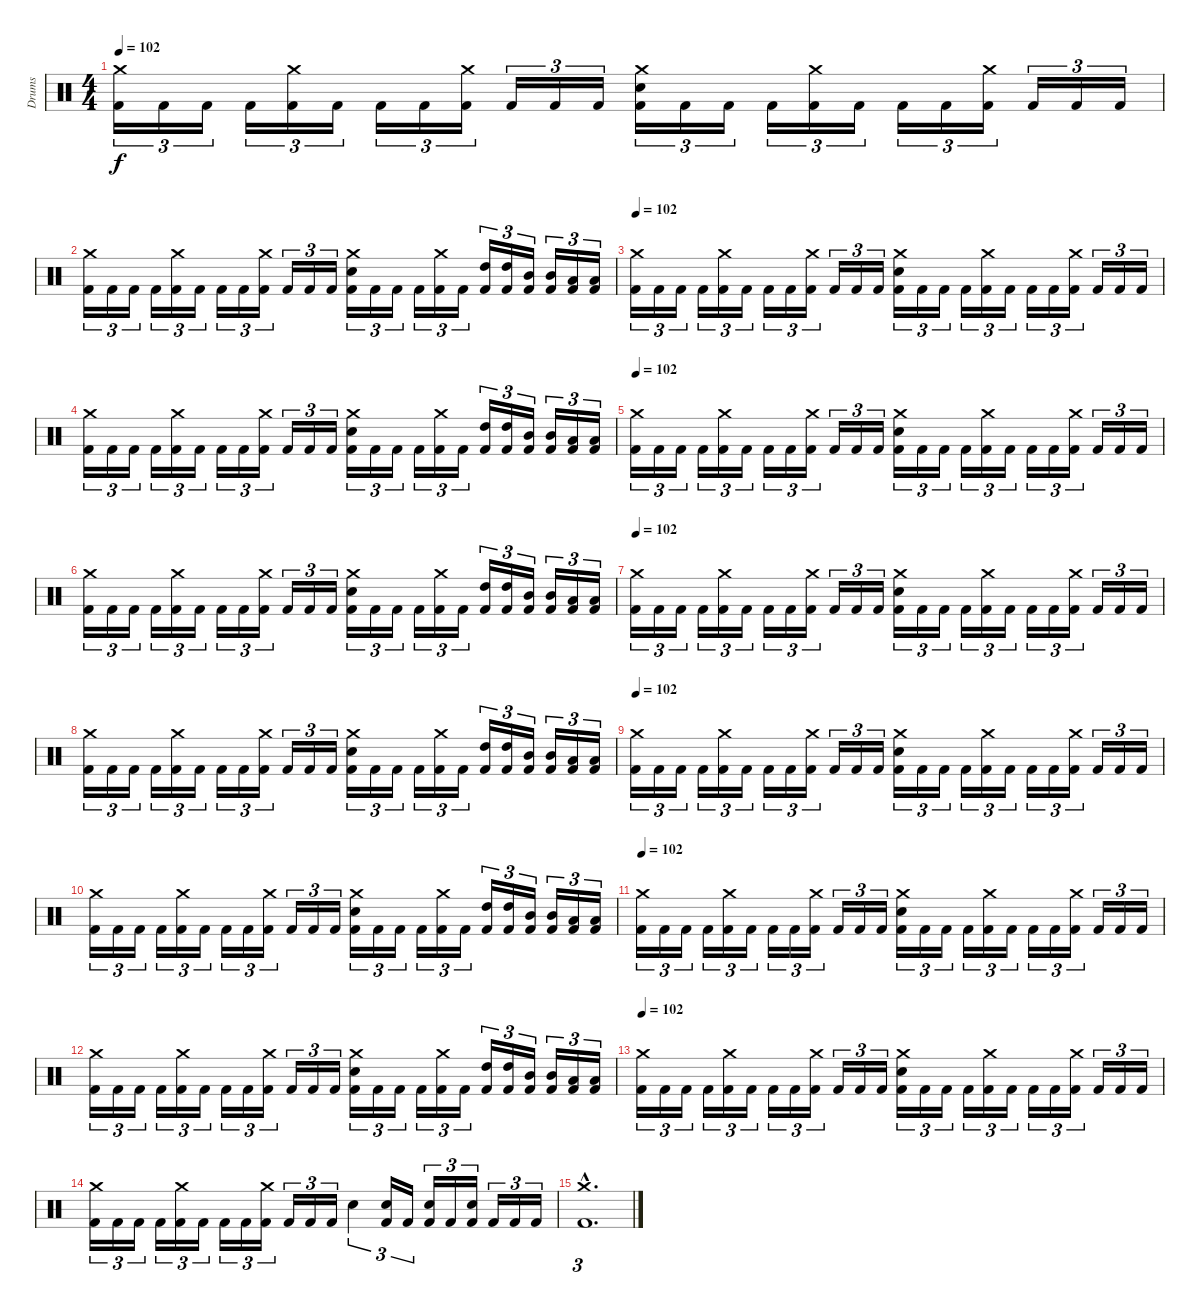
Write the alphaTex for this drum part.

\track ("Drums" "Drums") {instrument percussion}
\staff {score}
\articulation defaults
\ts (4 4)
\tempo 102
\clef neutral
\ks c
("Crash medium (hit)" "Kick (hit) 2").16{tu (3 2) dy f} "Kick (hit) 2".16{tu (3 2)} "Kick (hit) 2".16{tu (3 2)} "Kick (hit) 2".16{tu (3 2)} ("Crash medium (hit)" "Kick (hit) 2").16{tu (3 2)} "Kick (hit) 2".16{tu (3 2)} "Kick (hit) 2".16{tu (3 2)} "Kick (hit) 2".16{tu (3 2)} ("Crash medium (hit)" "Kick (hit) 2").16{tu (3 2)} "Kick (hit) 2".16{tu (3 2)} "Kick (hit) 2".16{tu (3 2)} "Kick (hit) 2".16{tu (3 2)} ("Crash medium (hit)" "Snare (hit) 2" "Kick (hit) 2").16{tu (3 2)} "Kick (hit) 2".16{tu (3 2)} "Kick (hit) 2".16{tu (3 2)} "Kick (hit) 2".16{tu (3 2)} ("Crash medium (hit)" "Kick (hit) 2").16{tu (3 2)} "Kick (hit) 2".16{tu (3 2)} "Kick (hit) 2".16{tu (3 2)} "Kick (hit) 2".16{tu (3 2)} ("Crash medium (hit)" "Kick (hit) 2").16{tu (3 2)} "Kick (hit) 2".16{tu (3 2)} "Kick (hit) 2".16{tu (3 2)} "Kick (hit) 2".16{tu (3 2)} |
("Crash medium (hit)" "Kick (hit) 2").16{tu (3 2)} "Kick (hit) 2".16{tu (3 2)} "Kick (hit) 2".16{tu (3 2)} "Kick (hit) 2".16{tu (3 2)} ("Crash medium (hit)" "Kick (hit) 2").16{tu (3 2)} "Kick (hit) 2".16{tu (3 2)} "Kick (hit) 2".16{tu (3 2)} "Kick (hit) 2".16{tu (3 2)} ("Crash medium (hit)" "Kick (hit) 2").16{tu (3 2)} "Kick (hit) 2".16{tu (3 2)} "Kick (hit) 2".16{tu (3 2)} "Kick (hit) 2".16{tu (3 2)} ("Crash medium (hit)" "Snare (hit) 2" "Kick (hit) 2").16{tu (3 2)} "Kick (hit) 2".16{tu (3 2)} "Kick (hit) 2".16{tu (3 2)} "Kick (hit) 2".16{tu (3 2)} ("Crash medium (hit)" "Kick (hit) 2").16{tu (3 2)} "Kick (hit) 2".16{tu (3 2)} ("High Tom (hit)" "Kick (hit) 2").16{tu (3 2)} ("High Tom (hit)" "Kick (hit) 2").16{tu (3 2)} ("Mid Tom (hit)" "Kick (hit) 2").16{tu (3 2)} ("Mid Tom (hit)" "Kick (hit) 2").16{tu (3 2)} ("Low Tom (hit)" "Kick (hit) 2").16{tu (3 2)} ("Low Tom (hit)" "Kick (hit) 2").16{tu (3 2)} |
\tempo 102
("Crash medium (hit)" "Kick (hit) 2").16{tu (3 2)} "Kick (hit) 2".16{tu (3 2)} "Kick (hit) 2".16{tu (3 2)} "Kick (hit) 2".16{tu (3 2)} ("Crash medium (hit)" "Kick (hit) 2").16{tu (3 2)} "Kick (hit) 2".16{tu (3 2)} "Kick (hit) 2".16{tu (3 2)} "Kick (hit) 2".16{tu (3 2)} ("Crash medium (hit)" "Kick (hit) 2").16{tu (3 2)} "Kick (hit) 2".16{tu (3 2)} "Kick (hit) 2".16{tu (3 2)} "Kick (hit) 2".16{tu (3 2)} ("Crash medium (hit)" "Snare (hit) 2" "Kick (hit) 2").16{tu (3 2)} "Kick (hit) 2".16{tu (3 2)} "Kick (hit) 2".16{tu (3 2)} "Kick (hit) 2".16{tu (3 2)} ("Crash medium (hit)" "Kick (hit) 2").16{tu (3 2)} "Kick (hit) 2".16{tu (3 2)} "Kick (hit) 2".16{tu (3 2)} "Kick (hit) 2".16{tu (3 2)} ("Crash medium (hit)" "Kick (hit) 2").16{tu (3 2)} "Kick (hit) 2".16{tu (3 2)} "Kick (hit) 2".16{tu (3 2)} "Kick (hit) 2".16{tu (3 2)} |
("Crash medium (hit)" "Kick (hit) 2").16{tu (3 2)} "Kick (hit) 2".16{tu (3 2)} "Kick (hit) 2".16{tu (3 2)} "Kick (hit) 2".16{tu (3 2)} ("Crash medium (hit)" "Kick (hit) 2").16{tu (3 2)} "Kick (hit) 2".16{tu (3 2)} "Kick (hit) 2".16{tu (3 2)} "Kick (hit) 2".16{tu (3 2)} ("Crash medium (hit)" "Kick (hit) 2").16{tu (3 2)} "Kick (hit) 2".16{tu (3 2)} "Kick (hit) 2".16{tu (3 2)} "Kick (hit) 2".16{tu (3 2)} ("Crash medium (hit)" "Snare (hit) 2" "Kick (hit) 2").16{tu (3 2)} "Kick (hit) 2".16{tu (3 2)} "Kick (hit) 2".16{tu (3 2)} "Kick (hit) 2".16{tu (3 2)} ("Crash medium (hit)" "Kick (hit) 2").16{tu (3 2)} "Kick (hit) 2".16{tu (3 2)} ("High Tom (hit)" "Kick (hit) 2").16{tu (3 2)} ("High Tom (hit)" "Kick (hit) 2").16{tu (3 2)} ("Mid Tom (hit)" "Kick (hit) 2").16{tu (3 2)} ("Mid Tom (hit)" "Kick (hit) 2").16{tu (3 2)} ("Low Tom (hit)" "Kick (hit) 2").16{tu (3 2)} ("Low Tom (hit)" "Kick (hit) 2").16{tu (3 2)} |
\tempo 102
("Crash medium (hit)" "Kick (hit) 2").16{tu (3 2)} "Kick (hit) 2".16{tu (3 2)} "Kick (hit) 2".16{tu (3 2)} "Kick (hit) 2".16{tu (3 2)} ("Crash medium (hit)" "Kick (hit) 2").16{tu (3 2)} "Kick (hit) 2".16{tu (3 2)} "Kick (hit) 2".16{tu (3 2)} "Kick (hit) 2".16{tu (3 2)} ("Crash medium (hit)" "Kick (hit) 2").16{tu (3 2)} "Kick (hit) 2".16{tu (3 2)} "Kick (hit) 2".16{tu (3 2)} "Kick (hit) 2".16{tu (3 2)} ("Crash medium (hit)" "Snare (hit) 2" "Kick (hit) 2").16{tu (3 2)} "Kick (hit) 2".16{tu (3 2)} "Kick (hit) 2".16{tu (3 2)} "Kick (hit) 2".16{tu (3 2)} ("Crash medium (hit)" "Kick (hit) 2").16{tu (3 2)} "Kick (hit) 2".16{tu (3 2)} "Kick (hit) 2".16{tu (3 2)} "Kick (hit) 2".16{tu (3 2)} ("Crash medium (hit)" "Kick (hit) 2").16{tu (3 2)} "Kick (hit) 2".16{tu (3 2)} "Kick (hit) 2".16{tu (3 2)} "Kick (hit) 2".16{tu (3 2)} |
("Crash medium (hit)" "Kick (hit) 2").16{tu (3 2)} "Kick (hit) 2".16{tu (3 2)} "Kick (hit) 2".16{tu (3 2)} "Kick (hit) 2".16{tu (3 2)} ("Crash medium (hit)" "Kick (hit) 2").16{tu (3 2)} "Kick (hit) 2".16{tu (3 2)} "Kick (hit) 2".16{tu (3 2)} "Kick (hit) 2".16{tu (3 2)} ("Crash medium (hit)" "Kick (hit) 2").16{tu (3 2)} "Kick (hit) 2".16{tu (3 2)} "Kick (hit) 2".16{tu (3 2)} "Kick (hit) 2".16{tu (3 2)} ("Crash medium (hit)" "Snare (hit) 2" "Kick (hit) 2").16{tu (3 2)} "Kick (hit) 2".16{tu (3 2)} "Kick (hit) 2".16{tu (3 2)} "Kick (hit) 2".16{tu (3 2)} ("Crash medium (hit)" "Kick (hit) 2").16{tu (3 2)} "Kick (hit) 2".16{tu (3 2)} ("High Tom (hit)" "Kick (hit) 2").16{tu (3 2)} ("High Tom (hit)" "Kick (hit) 2").16{tu (3 2)} ("Mid Tom (hit)" "Kick (hit) 2").16{tu (3 2)} ("Mid Tom (hit)" "Kick (hit) 2").16{tu (3 2)} ("Low Tom (hit)" "Kick (hit) 2").16{tu (3 2)} ("Low Tom (hit)" "Kick (hit) 2").16{tu (3 2)} |
\tempo 102
("Crash medium (hit)" "Kick (hit) 2").16{tu (3 2)} "Kick (hit) 2".16{tu (3 2)} "Kick (hit) 2".16{tu (3 2)} "Kick (hit) 2".16{tu (3 2)} ("Crash medium (hit)" "Kick (hit) 2").16{tu (3 2)} "Kick (hit) 2".16{tu (3 2)} "Kick (hit) 2".16{tu (3 2)} "Kick (hit) 2".16{tu (3 2)} ("Crash medium (hit)" "Kick (hit) 2").16{tu (3 2)} "Kick (hit) 2".16{tu (3 2)} "Kick (hit) 2".16{tu (3 2)} "Kick (hit) 2".16{tu (3 2)} ("Crash medium (hit)" "Snare (hit) 2" "Kick (hit) 2").16{tu (3 2)} "Kick (hit) 2".16{tu (3 2)} "Kick (hit) 2".16{tu (3 2)} "Kick (hit) 2".16{tu (3 2)} ("Crash medium (hit)" "Kick (hit) 2").16{tu (3 2)} "Kick (hit) 2".16{tu (3 2)} "Kick (hit) 2".16{tu (3 2)} "Kick (hit) 2".16{tu (3 2)} ("Crash medium (hit)" "Kick (hit) 2").16{tu (3 2)} "Kick (hit) 2".16{tu (3 2)} "Kick (hit) 2".16{tu (3 2)} "Kick (hit) 2".16{tu (3 2)} |
("Crash medium (hit)" "Kick (hit) 2").16{tu (3 2)} "Kick (hit) 2".16{tu (3 2)} "Kick (hit) 2".16{tu (3 2)} "Kick (hit) 2".16{tu (3 2)} ("Crash medium (hit)" "Kick (hit) 2").16{tu (3 2)} "Kick (hit) 2".16{tu (3 2)} "Kick (hit) 2".16{tu (3 2)} "Kick (hit) 2".16{tu (3 2)} ("Crash medium (hit)" "Kick (hit) 2").16{tu (3 2)} "Kick (hit) 2".16{tu (3 2)} "Kick (hit) 2".16{tu (3 2)} "Kick (hit) 2".16{tu (3 2)} ("Crash medium (hit)" "Snare (hit) 2" "Kick (hit) 2").16{tu (3 2)} "Kick (hit) 2".16{tu (3 2)} "Kick (hit) 2".16{tu (3 2)} "Kick (hit) 2".16{tu (3 2)} ("Crash medium (hit)" "Kick (hit) 2").16{tu (3 2)} "Kick (hit) 2".16{tu (3 2)} ("High Tom (hit)" "Kick (hit) 2").16{tu (3 2)} ("High Tom (hit)" "Kick (hit) 2").16{tu (3 2)} ("Mid Tom (hit)" "Kick (hit) 2").16{tu (3 2)} ("Mid Tom (hit)" "Kick (hit) 2").16{tu (3 2)} ("Low Tom (hit)" "Kick (hit) 2").16{tu (3 2)} ("Low Tom (hit)" "Kick (hit) 2").16{tu (3 2)} |
\tempo 102
("Crash medium (hit)" "Kick (hit) 2").16{tu (3 2)} "Kick (hit) 2".16{tu (3 2)} "Kick (hit) 2".16{tu (3 2)} "Kick (hit) 2".16{tu (3 2)} ("Crash medium (hit)" "Kick (hit) 2").16{tu (3 2)} "Kick (hit) 2".16{tu (3 2)} "Kick (hit) 2".16{tu (3 2)} "Kick (hit) 2".16{tu (3 2)} ("Crash medium (hit)" "Kick (hit) 2").16{tu (3 2)} "Kick (hit) 2".16{tu (3 2)} "Kick (hit) 2".16{tu (3 2)} "Kick (hit) 2".16{tu (3 2)} ("Crash medium (hit)" "Snare (hit) 2" "Kick (hit) 2").16{tu (3 2)} "Kick (hit) 2".16{tu (3 2)} "Kick (hit) 2".16{tu (3 2)} "Kick (hit) 2".16{tu (3 2)} ("Crash medium (hit)" "Kick (hit) 2").16{tu (3 2)} "Kick (hit) 2".16{tu (3 2)} "Kick (hit) 2".16{tu (3 2)} "Kick (hit) 2".16{tu (3 2)} ("Crash medium (hit)" "Kick (hit) 2").16{tu (3 2)} "Kick (hit) 2".16{tu (3 2)} "Kick (hit) 2".16{tu (3 2)} "Kick (hit) 2".16{tu (3 2)} |
("Crash medium (hit)" "Kick (hit) 2").16{tu (3 2)} "Kick (hit) 2".16{tu (3 2)} "Kick (hit) 2".16{tu (3 2)} "Kick (hit) 2".16{tu (3 2)} ("Crash medium (hit)" "Kick (hit) 2").16{tu (3 2)} "Kick (hit) 2".16{tu (3 2)} "Kick (hit) 2".16{tu (3 2)} "Kick (hit) 2".16{tu (3 2)} ("Crash medium (hit)" "Kick (hit) 2").16{tu (3 2)} "Kick (hit) 2".16{tu (3 2)} "Kick (hit) 2".16{tu (3 2)} "Kick (hit) 2".16{tu (3 2)} ("Crash medium (hit)" "Snare (hit) 2" "Kick (hit) 2").16{tu (3 2)} "Kick (hit) 2".16{tu (3 2)} "Kick (hit) 2".16{tu (3 2)} "Kick (hit) 2".16{tu (3 2)} ("Crash medium (hit)" "Kick (hit) 2").16{tu (3 2)} "Kick (hit) 2".16{tu (3 2)} ("High Tom (hit)" "Kick (hit) 2").16{tu (3 2)} ("High Tom (hit)" "Kick (hit) 2").16{tu (3 2)} ("Mid Tom (hit)" "Kick (hit) 2").16{tu (3 2)} ("Mid Tom (hit)" "Kick (hit) 2").16{tu (3 2)} ("Low Tom (hit)" "Kick (hit) 2").16{tu (3 2)} ("Low Tom (hit)" "Kick (hit) 2").16{tu (3 2)} |
\tempo 102
("Crash medium (hit)" "Kick (hit) 2").16{tu (3 2)} "Kick (hit) 2".16{tu (3 2)} "Kick (hit) 2".16{tu (3 2)} "Kick (hit) 2".16{tu (3 2)} ("Crash medium (hit)" "Kick (hit) 2").16{tu (3 2)} "Kick (hit) 2".16{tu (3 2)} "Kick (hit) 2".16{tu (3 2)} "Kick (hit) 2".16{tu (3 2)} ("Crash medium (hit)" "Kick (hit) 2").16{tu (3 2)} "Kick (hit) 2".16{tu (3 2)} "Kick (hit) 2".16{tu (3 2)} "Kick (hit) 2".16{tu (3 2)} ("Crash medium (hit)" "Snare (hit) 2" "Kick (hit) 2").16{tu (3 2)} "Kick (hit) 2".16{tu (3 2)} "Kick (hit) 2".16{tu (3 2)} "Kick (hit) 2".16{tu (3 2)} ("Crash medium (hit)" "Kick (hit) 2").16{tu (3 2)} "Kick (hit) 2".16{tu (3 2)} "Kick (hit) 2".16{tu (3 2)} "Kick (hit) 2".16{tu (3 2)} ("Crash medium (hit)" "Kick (hit) 2").16{tu (3 2)} "Kick (hit) 2".16{tu (3 2)} "Kick (hit) 2".16{tu (3 2)} "Kick (hit) 2".16{tu (3 2)} |
("Crash medium (hit)" "Kick (hit) 2").16{tu (3 2)} "Kick (hit) 2".16{tu (3 2)} "Kick (hit) 2".16{tu (3 2)} "Kick (hit) 2".16{tu (3 2)} ("Crash medium (hit)" "Kick (hit) 2").16{tu (3 2)} "Kick (hit) 2".16{tu (3 2)} "Kick (hit) 2".16{tu (3 2)} "Kick (hit) 2".16{tu (3 2)} ("Crash medium (hit)" "Kick (hit) 2").16{tu (3 2)} "Kick (hit) 2".16{tu (3 2)} "Kick (hit) 2".16{tu (3 2)} "Kick (hit) 2".16{tu (3 2)} ("Crash medium (hit)" "Snare (hit) 2" "Kick (hit) 2").16{tu (3 2)} "Kick (hit) 2".16{tu (3 2)} "Kick (hit) 2".16{tu (3 2)} "Kick (hit) 2".16{tu (3 2)} ("Crash medium (hit)" "Kick (hit) 2").16{tu (3 2)} "Kick (hit) 2".16{tu (3 2)} ("High Tom (hit)" "Kick (hit) 2").16{tu (3 2)} ("High Tom (hit)" "Kick (hit) 2").16{tu (3 2)} ("Mid Tom (hit)" "Kick (hit) 2").16{tu (3 2)} ("Mid Tom (hit)" "Kick (hit) 2").16{tu (3 2)} ("Low Tom (hit)" "Kick (hit) 2").16{tu (3 2)} ("Low Tom (hit)" "Kick (hit) 2").16{tu (3 2)} |
\tempo 102
("Crash medium (hit)" "Kick (hit) 2").16{tu (3 2)} "Kick (hit) 2".16{tu (3 2)} "Kick (hit) 2".16{tu (3 2)} "Kick (hit) 2".16{tu (3 2)} ("Crash medium (hit)" "Kick (hit) 2").16{tu (3 2)} "Kick (hit) 2".16{tu (3 2)} "Kick (hit) 2".16{tu (3 2)} "Kick (hit) 2".16{tu (3 2)} ("Crash medium (hit)" "Kick (hit) 2").16{tu (3 2)} "Kick (hit) 2".16{tu (3 2)} "Kick (hit) 2".16{tu (3 2)} "Kick (hit) 2".16{tu (3 2)} ("Crash medium (hit)" "Snare (hit) 2" "Kick (hit) 2").16{tu (3 2)} "Kick (hit) 2".16{tu (3 2)} "Kick (hit) 2".16{tu (3 2)} "Kick (hit) 2".16{tu (3 2)} ("Crash medium (hit)" "Kick (hit) 2").16{tu (3 2)} "Kick (hit) 2".16{tu (3 2)} "Kick (hit) 2".16{tu (3 2)} "Kick (hit) 2".16{tu (3 2)} ("Crash medium (hit)" "Kick (hit) 2").16{tu (3 2)} "Kick (hit) 2".16{tu (3 2)} "Kick (hit) 2".16{tu (3 2)} "Kick (hit) 2".16{tu (3 2)} |
("Crash medium (hit)" "Kick (hit) 2").16{tu (3 2)} "Kick (hit) 2".16{tu (3 2)} "Kick (hit) 2".16{tu (3 2)} "Kick (hit) 2".16{tu (3 2)} ("Crash medium (hit)" "Kick (hit) 2").16{tu (3 2)} "Kick (hit) 2".16{tu (3 2)} "Kick (hit) 2".16{tu (3 2)} "Kick (hit) 2".16{tu (3 2)} ("Crash medium (hit)" "Kick (hit) 2").16{tu (3 2)} "Kick (hit) 2".16{tu (3 2)} "Kick (hit) 2".16{tu (3 2)} "Kick (hit) 2".16{tu (3 2)} "Snare (hit) 2".4{tu (3 2)} ("Snare (hit) 2" "Kick (hit) 2").16{tu (3 2)} "Kick (hit) 2".16{tu (3 2)} ("Snare (hit) 2" "Kick (hit) 2").16{tu (3 2)} "Kick (hit) 2".16{tu (3 2)} ("Snare (hit) 2" "Kick (hit) 2").16{tu (3 2)} "Kick (hit) 2".16{tu (3 2)} "Kick (hit) 2".16{tu (3 2)} "Kick (hit) 2".16{tu (3 2)} |
("Crash medium (hit)"{hac} "Kick (hit) 2"{hac}).1{d tu (3 2)}
